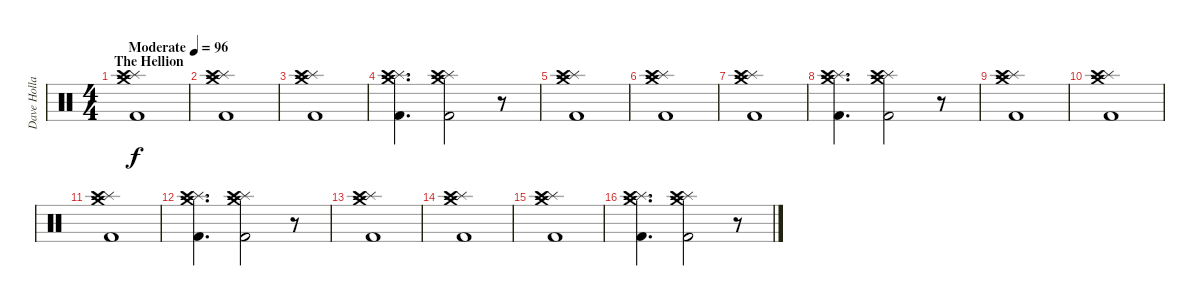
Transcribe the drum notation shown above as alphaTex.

\track ("Dave Holland" "Dave Holla") {instrument percussion}
\staff {score}
\articulation defaults
\ts (4 4)
\section ("" "The Hellion")
\tempo (96 "Moderate")
\clef neutral
\ks c
("Crash medium (hit)" "Splash (hit)" "Crash high (hit)" "Kick (hit) 2").1{dy f} |
("Crash medium (hit)" "Splash (hit)" "Crash high (hit)" "Kick (hit) 2").1 |
("Crash medium (hit)" "Splash (hit)" "Crash high (hit)" "Kick (hit) 2").1 |
("Crash medium (hit)" "Splash (hit)" "Crash high (hit)" "Kick (hit) 2").4{d} ("Crash medium (hit)" "Splash (hit)" "Crash high (hit)" "Kick (hit) 2").2 r.8 |
("Crash medium (hit)" "Splash (hit)" "Crash high (hit)" "Kick (hit) 2").1 |
("Crash medium (hit)" "Splash (hit)" "Crash high (hit)" "Kick (hit) 2").1 |
("Crash medium (hit)" "Splash (hit)" "Crash high (hit)" "Kick (hit) 2").1 |
("Crash medium (hit)" "Splash (hit)" "Crash high (hit)" "Kick (hit) 2").4{d} ("Crash medium (hit)" "Splash (hit)" "Crash high (hit)" "Kick (hit) 2").2 r.8 |
("Crash medium (hit)" "Splash (hit)" "Crash high (hit)" "Kick (hit) 2").1 |
("Crash medium (hit)" "Splash (hit)" "Crash high (hit)" "Kick (hit) 2").1 |
("Crash medium (hit)" "Splash (hit)" "Crash high (hit)" "Kick (hit) 2").1 |
("Crash medium (hit)" "Splash (hit)" "Crash high (hit)" "Kick (hit) 2").4{d} ("Crash medium (hit)" "Splash (hit)" "Crash high (hit)" "Kick (hit) 2").2 r.8 |
("Crash medium (hit)" "Splash (hit)" "Crash high (hit)" "Kick (hit) 2").1 |
("Crash medium (hit)" "Splash (hit)" "Crash high (hit)" "Kick (hit) 2").1 |
("Crash medium (hit)" "Splash (hit)" "Crash high (hit)" "Kick (hit) 2").1 |
("Crash medium (hit)" "Splash (hit)" "Crash high (hit)" "Kick (hit) 2").4{d} ("Crash medium (hit)" "Splash (hit)" "Crash high (hit)" "Kick (hit) 2").2 r.8
